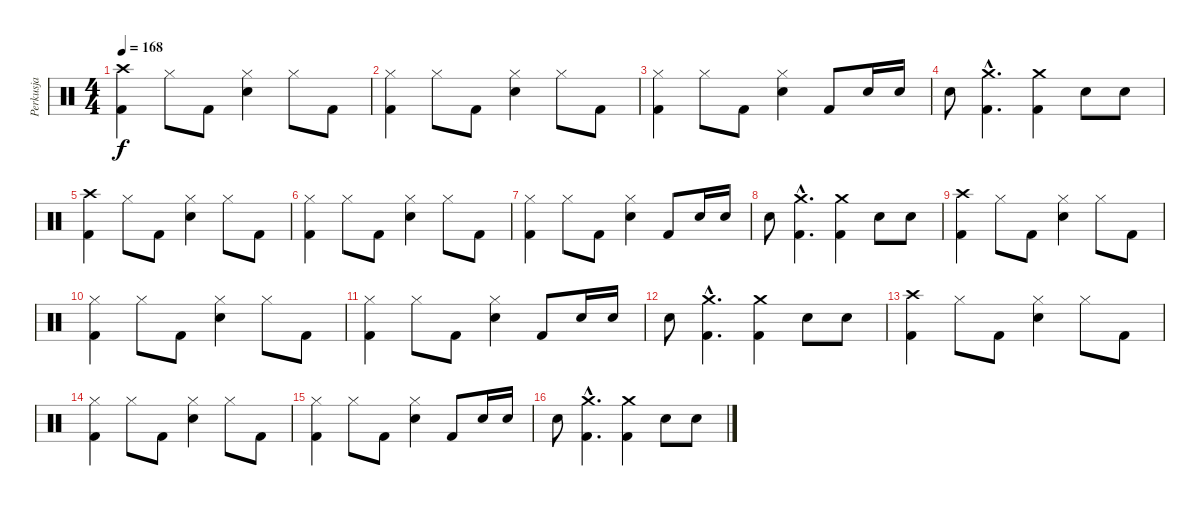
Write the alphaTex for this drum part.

\track ("Perkusja" "Perkusja") {instrument percussion}
\staff {score}
\articulation defaults
\ts (4 4)
\tempo 168
\clef neutral
\ks c
("Crash high (hit)" "Kick (hit) 2").4{dy f} "Hi-Hat (closed)".8 "Kick (hit) 2".8 ("Hi-Hat (closed)" "Snare (hit) 2").4 "Hi-Hat (closed)".8 "Kick (hit) 2".8 |
("Hi-Hat (closed)" "Kick (hit) 2").4 "Hi-Hat (closed)".8 "Kick (hit) 2".8 ("Hi-Hat (closed)" "Snare (hit) 2").4 "Hi-Hat (closed)".8 "Kick (hit) 2".8 |
("Hi-Hat (closed)" "Kick (hit) 2").4 "Hi-Hat (closed)".8 "Kick (hit) 2".8 ("Hi-Hat (closed)" "Snare (hit) 2").4 "Kick (hit) 2".8 "Snare (hit) 2".16 "Snare (hit) 2".16 |
"Snare (hit) 2".8 ("Crash medium (hit)"{hac} "Kick (hit) 2"{hac}).4{d} ("Crash medium (hit)" "Kick (hit) 2").4 "Snare (hit) 2".8 "Snare (hit) 2".8 |
("Crash high (hit)" "Kick (hit) 2").4 "Hi-Hat (closed)".8 "Kick (hit) 2".8 ("Hi-Hat (closed)" "Snare (hit) 2").4 "Hi-Hat (closed)".8 "Kick (hit) 2".8 |
("Hi-Hat (closed)" "Kick (hit) 2").4 "Hi-Hat (closed)".8 "Kick (hit) 2".8 ("Hi-Hat (closed)" "Snare (hit) 2").4 "Hi-Hat (closed)".8 "Kick (hit) 2".8 |
("Hi-Hat (closed)" "Kick (hit) 2").4 "Hi-Hat (closed)".8 "Kick (hit) 2".8 ("Hi-Hat (closed)" "Snare (hit) 2").4 "Kick (hit) 2".8 "Snare (hit) 2".16 "Snare (hit) 2".16 |
"Snare (hit) 2".8 ("Crash medium (hit)"{hac} "Kick (hit) 2"{hac}).4{d} ("Crash medium (hit)" "Kick (hit) 2").4 "Snare (hit) 2".8 "Snare (hit) 2".8 |
("Crash high (hit)" "Kick (hit) 2").4 "Hi-Hat (closed)".8 "Kick (hit) 2".8 ("Hi-Hat (closed)" "Snare (hit) 2").4 "Hi-Hat (closed)".8 "Kick (hit) 2".8 |
("Hi-Hat (closed)" "Kick (hit) 2").4 "Hi-Hat (closed)".8 "Kick (hit) 2".8 ("Hi-Hat (closed)" "Snare (hit) 2").4 "Hi-Hat (closed)".8 "Kick (hit) 2".8 |
("Hi-Hat (closed)" "Kick (hit) 2").4 "Hi-Hat (closed)".8 "Kick (hit) 2".8 ("Hi-Hat (closed)" "Snare (hit) 2").4 "Kick (hit) 2".8 "Snare (hit) 2".16 "Snare (hit) 2".16 |
"Snare (hit) 2".8 ("Crash medium (hit)"{hac} "Kick (hit) 2"{hac}).4{d} ("Crash medium (hit)" "Kick (hit) 2").4 "Snare (hit) 2".8 "Snare (hit) 2".8 |
("Crash high (hit)" "Kick (hit) 2").4 "Hi-Hat (closed)".8 "Kick (hit) 2".8 ("Hi-Hat (closed)" "Snare (hit) 2").4 "Hi-Hat (closed)".8 "Kick (hit) 2".8 |
("Hi-Hat (closed)" "Kick (hit) 2").4 "Hi-Hat (closed)".8 "Kick (hit) 2".8 ("Hi-Hat (closed)" "Snare (hit) 2").4 "Hi-Hat (closed)".8 "Kick (hit) 2".8 |
("Hi-Hat (closed)" "Kick (hit) 2").4 "Hi-Hat (closed)".8 "Kick (hit) 2".8 ("Hi-Hat (closed)" "Snare (hit) 2").4 "Kick (hit) 2".8 "Snare (hit) 2".16 "Snare (hit) 2".16 |
"Snare (hit) 2".8 ("Crash medium (hit)"{hac} "Kick (hit) 2"{hac}).4{d} ("Crash medium (hit)" "Kick (hit) 2").4 "Snare (hit) 2".8 "Snare (hit) 2".8
